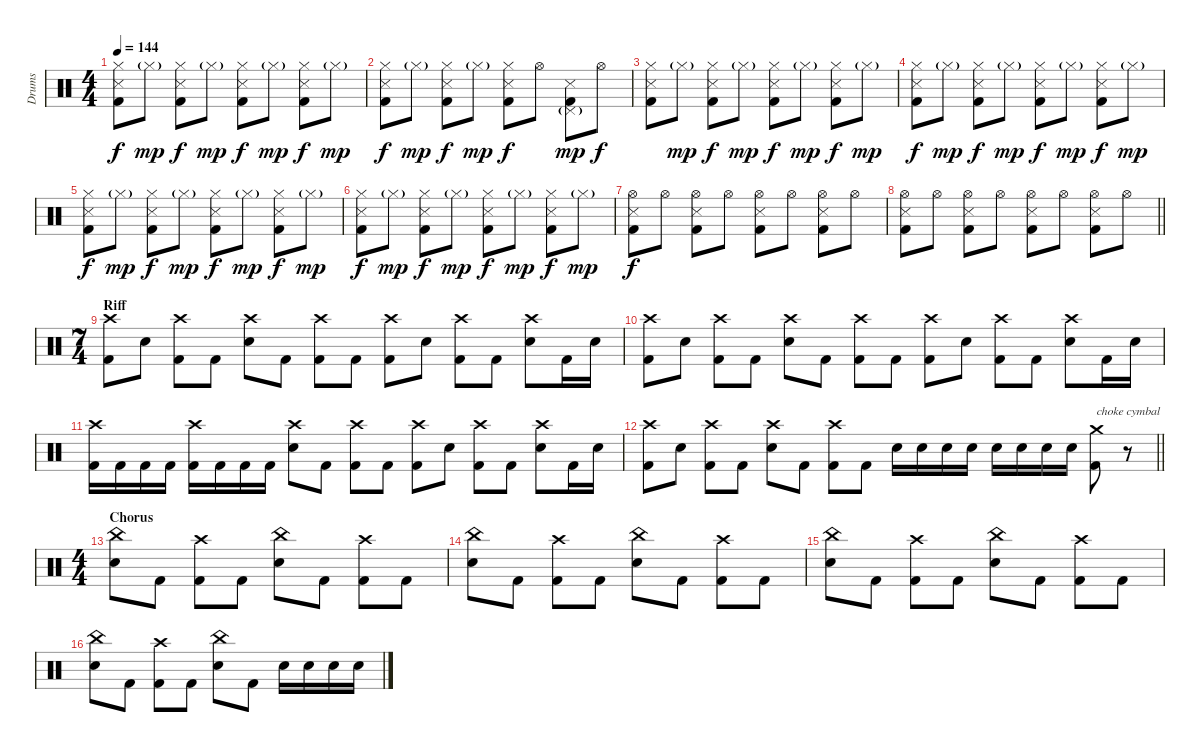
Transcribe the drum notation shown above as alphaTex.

\track ("Drums" "Drums") {instrument percussion}
\staff {score}
\articulation defaults
\ts (4 4)
\tempo 144
\clef neutral
\ks c
("Hi-Hat (closed)" "Snare (side stick) 3" "Kick (hit) 2").8{dy f} "Hi-Hat (closed)"{g}.8{dy mp} ("Hi-Hat (closed)" "Snare (side stick) 3" "Kick (hit) 2").8{dy f} "Hi-Hat (closed)"{g}.8{dy mp} ("Hi-Hat (closed)" "Snare (side stick) 3" "Kick (hit) 2").8{dy f} "Hi-Hat (closed)"{g}.8{dy mp} ("Hi-Hat (closed)" "Snare (side stick) 3" "Kick (hit) 2").8{dy f} "Hi-Hat (closed)"{g}.8{dy mp} |
("Hi-Hat (closed)" "Snare (side stick) 3" "Kick (hit) 2").8{dy f} "Hi-Hat (closed)"{g}.8{dy mp} ("Hi-Hat (closed)" "Snare (side stick) 3" "Kick (hit) 2").8{dy f} "Hi-Hat (closed)"{g}.8{dy mp} ("Hi-Hat (closed)" "Snare (side stick) 3" "Kick (hit) 2").8{dy f} "Hi-Hat (open)".8 ("Pedal Hi-Hat (hit)"{g} "Snare (side stick) 3" "Kick (hit) 2").8{dy mp} "Hi-Hat (open)".8{dy f} |
("Hi-Hat (closed)" "Snare (side stick) 3" "Kick (hit) 2").8 "Hi-Hat (closed)"{g}.8{dy mp} ("Hi-Hat (closed)" "Snare (side stick) 3" "Kick (hit) 2").8{dy f} "Hi-Hat (closed)"{g}.8{dy mp} ("Hi-Hat (closed)" "Snare (side stick) 3" "Kick (hit) 2").8{dy f} "Hi-Hat (closed)"{g}.8{dy mp} ("Hi-Hat (closed)" "Snare (side stick) 3" "Kick (hit) 2").8{dy f} "Hi-Hat (closed)"{g}.8{dy mp} |
("Hi-Hat (closed)" "Snare (side stick) 3" "Kick (hit) 2").8{dy f} "Hi-Hat (closed)"{g}.8{dy mp} ("Hi-Hat (closed)" "Snare (side stick) 3" "Kick (hit) 2").8{dy f} "Hi-Hat (closed)"{g}.8{dy mp} ("Hi-Hat (closed)" "Snare (side stick) 3" "Kick (hit) 2").8{dy f} "Hi-Hat (closed)"{g}.8{dy mp} ("Hi-Hat (closed)" "Snare (side stick) 3" "Kick (hit) 2").8{dy f} "Hi-Hat (closed)"{g}.8{dy mp} |
("Hi-Hat (closed)" "Snare (side stick) 3" "Kick (hit) 2").8{dy f} "Hi-Hat (closed)"{g}.8{dy mp} ("Hi-Hat (closed)" "Snare (side stick) 3" "Kick (hit) 2").8{dy f} "Hi-Hat (closed)"{g}.8{dy mp} ("Hi-Hat (closed)" "Snare (side stick) 3" "Kick (hit) 2").8{dy f} "Hi-Hat (closed)"{g}.8{dy mp} ("Hi-Hat (closed)" "Snare (side stick) 3" "Kick (hit) 2").8{dy f} "Hi-Hat (closed)"{g}.8{dy mp} |
("Hi-Hat (closed)" "Snare (side stick) 3" "Kick (hit) 2").8{dy f} "Hi-Hat (closed)"{g}.8{dy mp} ("Hi-Hat (closed)" "Snare (side stick) 3" "Kick (hit) 2").8{dy f} "Hi-Hat (closed)"{g}.8{dy mp} ("Hi-Hat (closed)" "Snare (side stick) 3" "Kick (hit) 2").8{dy f} "Hi-Hat (closed)"{g}.8{dy mp} ("Hi-Hat (closed)" "Snare (side stick) 3" "Kick (hit) 2").8{dy f} "Hi-Hat (closed)"{g}.8{dy mp} |
("Hi-Hat (open)" "Snare (side stick) 3" "Kick (hit) 2").8{dy f} "Hi-Hat (open)".8 ("Hi-Hat (open)" "Snare (side stick) 3" "Kick (hit) 2").8 "Hi-Hat (open)".8 ("Hi-Hat (open)" "Snare (side stick) 3" "Kick (hit) 2").8 "Hi-Hat (open)".8 ("Hi-Hat (open)" "Snare (side stick) 3" "Kick (hit) 2").8 "Hi-Hat (open)".8 |
\barLineRight lightlight
("Hi-Hat (open)" "Snare (side stick) 3" "Kick (hit) 2").8 "Hi-Hat (open)".8 ("Hi-Hat (open)" "Snare (side stick) 3" "Kick (hit) 2").8 "Hi-Hat (open)".8 ("Hi-Hat (open)" "Snare (side stick) 3" "Kick (hit) 2").8 "Hi-Hat (open)".8 ("Hi-Hat (open)" "Snare (side stick) 3" "Kick (hit) 2").8 "Hi-Hat (open)".8 |
\ts (7 4)
\section ("" "Riff")
("Crash high (hit)" "Kick (hit) 2").8 "Electric Snare (hit)".8 ("Crash high (hit)" "Kick (hit) 2").8 "Kick (hit) 2".8 ("Crash high (hit)" "Electric Snare (hit)").8 "Kick (hit) 2".8 ("Crash high (hit)" "Kick (hit) 2").8 "Kick (hit) 2".8 ("Crash high (hit)" "Kick (hit) 2").8 "Electric Snare (hit)".8 ("Crash high (hit)" "Kick (hit) 2").8 "Kick (hit) 2".8 ("Crash high (hit)" "Electric Snare (hit)").8 "Kick (hit) 2".16 "Electric Snare (hit)".16 |
("Crash high (hit)" "Kick (hit) 2").8 "Electric Snare (hit)".8 ("Crash high (hit)" "Kick (hit) 2").8 "Kick (hit) 2".8 ("Crash high (hit)" "Electric Snare (hit)").8 "Kick (hit) 2".8 ("Crash high (hit)" "Kick (hit) 2").8 "Kick (hit) 2".8 ("Crash high (hit)" "Kick (hit) 2").8 "Electric Snare (hit)".8 ("Crash high (hit)" "Kick (hit) 2").8 "Kick (hit) 2".8 ("Crash high (hit)" "Electric Snare (hit)").8 "Kick (hit) 2".16 "Electric Snare (hit)".16 |
("Crash high (hit)" "Kick (hit) 2").16 "Kick (hit) 2".16 "Kick (hit) 2".16 "Kick (hit) 2".16 ("Crash high (hit)" "Kick (hit) 2").16 "Kick (hit) 2".16 "Kick (hit) 2".16 "Kick (hit) 2".16 ("Crash high (hit)" "Electric Snare (hit)").8 "Kick (hit) 2".8 ("Crash high (hit)" "Kick (hit) 2").8 "Kick (hit) 2".8 ("Crash high (hit)" "Kick (hit) 2").8 "Electric Snare (hit)".8 ("Crash high (hit)" "Kick (hit) 2").8 "Kick (hit) 2".8 ("Crash high (hit)" "Electric Snare (hit)").8 "Kick (hit) 2".16 "Electric Snare (hit)".16 |
\barLineRight lightlight
("Crash high (hit)" "Kick (hit) 2").8 "Electric Snare (hit)".8 ("Crash high (hit)" "Kick (hit) 2").8 "Kick (hit) 2".8 ("Crash high (hit)" "Electric Snare (hit)").8 "Kick (hit) 2".8 ("Crash high (hit)" "Kick (hit) 2").8 "Kick (hit) 2".8 "Electric Snare (hit)".16 "Electric Snare (hit)".16 "Electric Snare (hit)".16 "Electric Snare (hit)".16 "Electric Snare (hit)".16 "Electric Snare (hit)".16 "Electric Snare (hit)".16 "Electric Snare (hit)".16 ("Crash medium (hit)" "Kick (hit) 2").8{txt "choke cymbal"} r.8{volume 0} |
\ts (4 4)
\section ("" "Chorus")
("China (hit)" "Electric Snare (hit)").8{volume 14} "Kick (hit) 2".8 ("Crash high (hit)" "Kick (hit) 2").8 "Kick (hit) 2".8 ("China (hit)" "Electric Snare (hit)").8 "Kick (hit) 2".8 ("Crash high (hit)" "Kick (hit) 2").8 "Kick (hit) 2".8 |
("China (hit)" "Electric Snare (hit)").8 "Kick (hit) 2".8 ("Crash high (hit)" "Kick (hit) 2").8 "Kick (hit) 2".8 ("China (hit)" "Electric Snare (hit)").8 "Kick (hit) 2".8 ("Crash high (hit)" "Kick (hit) 2").8 "Kick (hit) 2".8 |
("China (hit)" "Electric Snare (hit)").8 "Kick (hit) 2".8 ("Crash high (hit)" "Kick (hit) 2").8 "Kick (hit) 2".8 ("China (hit)" "Electric Snare (hit)").8 "Kick (hit) 2".8 ("Crash high (hit)" "Kick (hit) 2").8 "Kick (hit) 2".8 |
("China (hit)" "Electric Snare (hit)").8 "Kick (hit) 2".8 ("Crash high (hit)" "Kick (hit) 2").8 "Kick (hit) 2".8 ("China (hit)" "Electric Snare (hit)").8 "Kick (hit) 2".8 "Electric Snare (hit)".16 "Electric Snare (hit)".16 "Electric Snare (hit)".16 "Electric Snare (hit)".16
